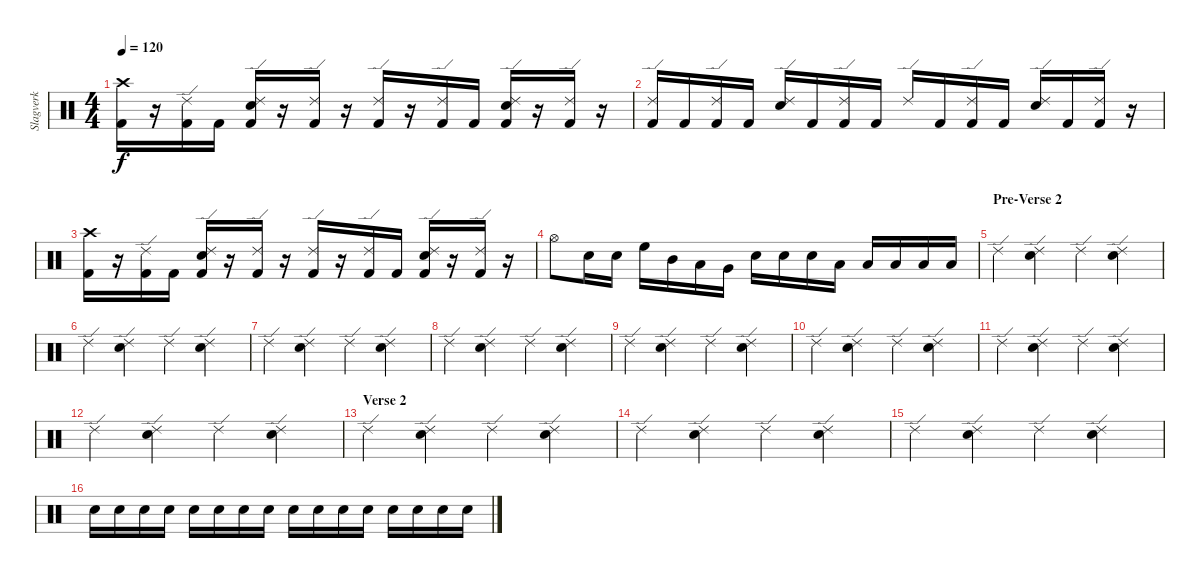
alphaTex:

\track ("Slagverk" "Slagverk") {instrument percussion}
\staff {score}
\articulation defaults
\ts (4 4)
\tempo 120
\clef neutral
\ks c
("Kick (hit) 2" "Crash high (hit)").16{dy f} r.16 ("Kick (hit) 2" "Ride (edge) 2").16 "Kick (hit) 2".16 ("Kick (hit) 2" "Electric Snare (hit)" "Ride (edge) 2").16 r.16 ("Kick (hit) 2" "Ride (edge) 2").16 r.16 ("Kick (hit) 2" "Ride (edge) 2").16 r.16 ("Kick (hit) 2" "Ride (edge) 2").16 "Kick (hit) 2".16 ("Kick (hit) 2" "Electric Snare (hit)" "Ride (edge) 2").16 r.16 ("Kick (hit) 2" "Ride (edge) 2").16 r.16 |
("Kick (hit) 2" "Ride (edge) 2").16 "Kick (hit) 2".16 ("Kick (hit) 2" "Ride (edge) 2").16 "Kick (hit) 2".16 ("Electric Snare (hit)" "Ride (edge) 2").16 "Kick (hit) 2".16 ("Kick (hit) 2" "Ride (edge) 2").16 "Kick (hit) 2".16 "Ride (edge) 2".16 "Kick (hit) 2".16 ("Kick (hit) 2" "Ride (edge) 2").16 "Kick (hit) 2".16 ("Electric Snare (hit)" "Ride (edge) 2").16 "Kick (hit) 2".16 ("Kick (hit) 2" "Ride (edge) 2").16 r.16 |
("Kick (hit) 2" "Crash high (hit)").16 r.16 ("Kick (hit) 2" "Ride (edge) 2").16 "Kick (hit) 2".16 ("Kick (hit) 2" "Electric Snare (hit)" "Ride (edge) 2").16 r.16 ("Kick (hit) 2" "Ride (edge) 2").16 r.16 ("Kick (hit) 2" "Ride (edge) 2").16 r.16 ("Kick (hit) 2" "Ride (edge) 2").16 "Kick (hit) 2".16 ("Kick (hit) 2" "Electric Snare (hit)" "Ride (edge) 2").16 r.16 ("Kick (hit) 2" "Ride (edge) 2").16 r.16 |
"Hi-Hat (open)".8 "Electric Snare (hit)".16 "Electric Snare (hit)".16 "High Floor Tom (hit)".16 "Mid Tom (hit)".16 "Low Tom (hit)".16 "Very Low Tom (hit)".16 "Electric Snare (hit)".16 "Electric Snare (hit)".16 "Electric Snare (hit)".16 "Low Tom (hit)".16 "Low Floor Tom (hit)".16 "Low Floor Tom (hit)".16 "Low Floor Tom (hit)".16 "Low Floor Tom (hit)".16 |
\section ("" "Pre-Verse 2")
"Ride (edge) 2".4 ("Ride (edge) 2" "Electric Snare (hit)").4 "Ride (edge) 2".4 ("Ride (edge) 2" "Electric Snare (hit)").4 |
"Ride (edge) 2".4 ("Ride (edge) 2" "Electric Snare (hit)").4 "Ride (edge) 2".4 ("Ride (edge) 2" "Electric Snare (hit)").4 |
"Ride (edge) 2".4 ("Ride (edge) 2" "Electric Snare (hit)").4 "Ride (edge) 2".4 ("Ride (edge) 2" "Electric Snare (hit)").4 |
"Ride (edge) 2".4 ("Ride (edge) 2" "Electric Snare (hit)").4 "Ride (edge) 2".4 ("Ride (edge) 2" "Electric Snare (hit)").4 |
"Ride (edge) 2".4 ("Ride (edge) 2" "Electric Snare (hit)").4 "Ride (edge) 2".4 ("Ride (edge) 2" "Electric Snare (hit)").4 |
"Ride (edge) 2".4 ("Ride (edge) 2" "Electric Snare (hit)").4 "Ride (edge) 2".4 ("Ride (edge) 2" "Electric Snare (hit)").4 |
"Ride (edge) 2".4 ("Ride (edge) 2" "Electric Snare (hit)").4 "Ride (edge) 2".4 ("Ride (edge) 2" "Electric Snare (hit)").4 |
"Ride (edge) 2".4 ("Ride (edge) 2" "Electric Snare (hit)").4 "Ride (edge) 2".4 ("Ride (edge) 2" "Electric Snare (hit)").4 |
\section ("" "Verse 2")
"Ride (edge) 2".4 ("Ride (edge) 2" "Electric Snare (hit)").4 "Ride (edge) 2".4 ("Ride (edge) 2" "Electric Snare (hit)").4 |
"Ride (edge) 2".4 ("Ride (edge) 2" "Electric Snare (hit)").4 "Ride (edge) 2".4 ("Ride (edge) 2" "Electric Snare (hit)").4 |
"Ride (edge) 2".4 ("Ride (edge) 2" "Electric Snare (hit)").4 "Ride (edge) 2".4 ("Ride (edge) 2" "Electric Snare (hit)").4 |
"Electric Snare (hit)".16 "Electric Snare (hit)".16 "Electric Snare (hit)".16 "Electric Snare (hit)".16 "Electric Snare (hit)".16 "Electric Snare (hit)".16 "Electric Snare (hit)".16 "Electric Snare (hit)".16 "Electric Snare (hit)".16 "Electric Snare (hit)".16 "Electric Snare (hit)".16 "Electric Snare (hit)".16 "Electric Snare (hit)".16 "Electric Snare (hit)".16 "Electric Snare (hit)".16 "Electric Snare (hit)".16
